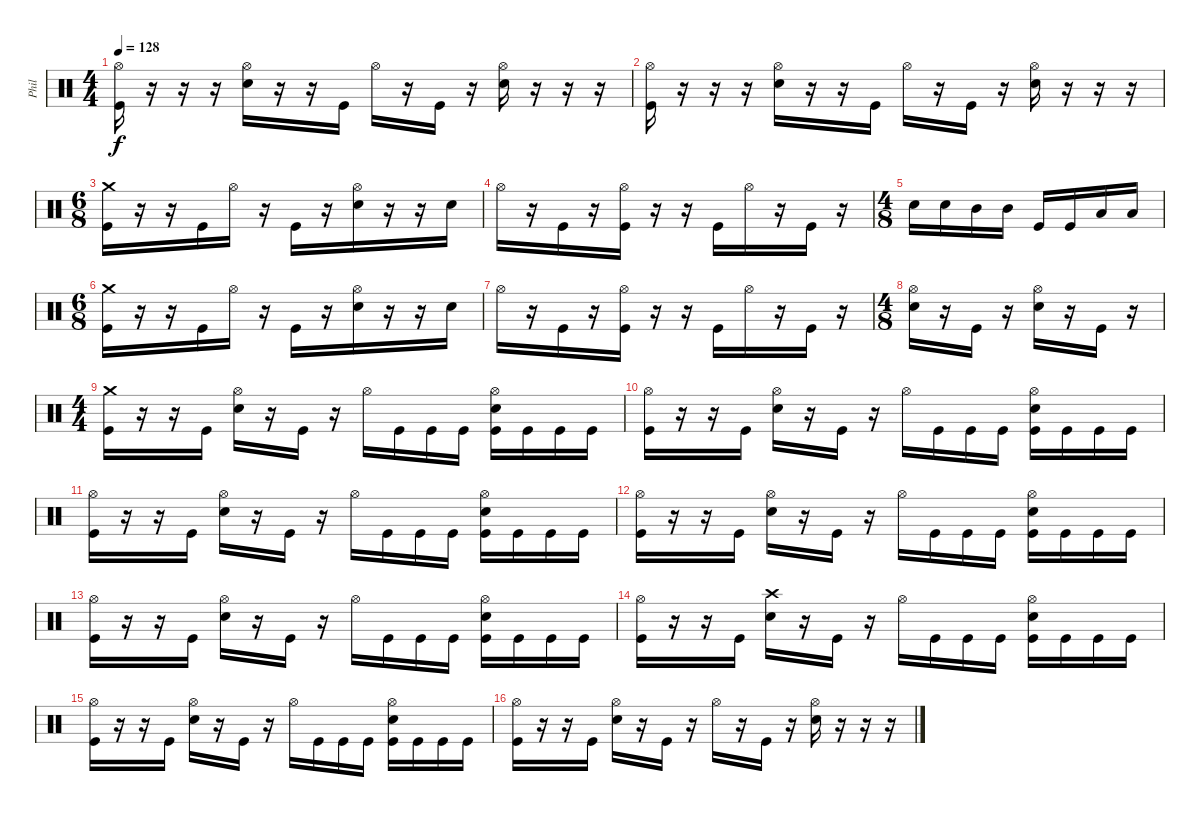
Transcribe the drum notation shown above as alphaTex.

\track ("Phil" "Phil") {instrument percussion}
\staff {score}
\articulation defaults
\ts (4 4)
\tempo 128
\clef neutral
\ks c
("Hi-Hat (open)" "Kick (hit)").16{dy f} r.16 r.16 r.16 ("Hi-Hat (open)" "Electric Snare (hit)").16 r.16 r.16 "Kick (hit)".16 "Hi-Hat (open)".16 r.16 "Kick (hit)".16 r.16 ("Hi-Hat (open)" "Electric Snare (hit)").16 r.16 r.16 r.16 |
("Hi-Hat (open)" "Kick (hit)").16 r.16 r.16 r.16 ("Hi-Hat (open)" "Electric Snare (hit)").16 r.16 r.16 "Kick (hit)".16 "Hi-Hat (open)".16 r.16 "Kick (hit)".16 r.16 ("Hi-Hat (open)" "Electric Snare (hit)").16 r.16 r.16 r.16 |
\ts (6 8)
("Crash medium (hit)" "Kick (hit)").16 r.16 r.16 "Kick (hit)".16 "Hi-Hat (open)".16 r.16 "Kick (hit)".16 r.16 ("Hi-Hat (open)" "Electric Snare (hit)").16 r.16 r.16 "Electric Snare (hit)".16 |
"Hi-Hat (open)".16 r.16 "Kick (hit)".16 r.16 ("Hi-Hat (open)" "Kick (hit)").16 r.16 r.16 "Kick (hit)".16 "Hi-Hat (open)".16 r.16 "Kick (hit)".16 r.16 |
\ts (4 8)
"Electric Snare (hit)".16 "Electric Snare (hit)".16 "Mid Tom (hit)".16 "Mid Tom (hit)".16 "Kick (hit)".16 "Kick (hit)".16 "Low Floor Tom (hit)".16 "Low Floor Tom (hit)".16 |
\ts (6 8)
("Crash medium (hit)" "Kick (hit)").16 r.16 r.16 "Kick (hit)".16 "Hi-Hat (open)".16 r.16 "Kick (hit)".16 r.16 ("Hi-Hat (open)" "Electric Snare (hit)").16 r.16 r.16 "Electric Snare (hit)".16 |
"Hi-Hat (open)".16 r.16 "Kick (hit)".16 r.16 ("Hi-Hat (open)" "Kick (hit)").16 r.16 r.16 "Kick (hit)".16 "Hi-Hat (open)".16 r.16 "Kick (hit)".16 r.16 |
\ts (4 8)
("Hi-Hat (open)" "Electric Snare (hit)").16 r.16 "Kick (hit)".16 r.16 ("Hi-Hat (open)" "Electric Snare (hit)").16 r.16 "Kick (hit)".16 r.16 |
\ts (4 4)
("Crash medium (hit)" "Kick (hit)").16 r.16 r.16 "Kick (hit)".16 ("Hi-Hat (open)" "Electric Snare (hit)").16 r.16 "Kick (hit)".16 r.16 "Hi-Hat (open)".16 "Kick (hit)".16 "Kick (hit)".16 "Kick (hit)".16 ("Hi-Hat (open)" "Electric Snare (hit)" "Kick (hit)").16 "Kick (hit)".16 "Kick (hit)".16 "Kick (hit)".16 |
("Hi-Hat (open)" "Kick (hit)").16 r.16 r.16 "Kick (hit)".16 ("Hi-Hat (open)" "Electric Snare (hit)").16 r.16 "Kick (hit)".16 r.16 "Hi-Hat (open)".16 "Kick (hit)".16 "Kick (hit)".16 "Kick (hit)".16 ("Hi-Hat (open)" "Electric Snare (hit)" "Kick (hit)").16 "Kick (hit)".16 "Kick (hit)".16 "Kick (hit)".16 |
("Hi-Hat (open)" "Kick (hit)").16 r.16 r.16 "Kick (hit)".16 ("Hi-Hat (open)" "Electric Snare (hit)").16 r.16 "Kick (hit)".16 r.16 "Hi-Hat (open)".16 "Kick (hit)".16 "Kick (hit)".16 "Kick (hit)".16 ("Hi-Hat (open)" "Electric Snare (hit)" "Kick (hit)").16 "Kick (hit)".16 "Kick (hit)".16 "Kick (hit)".16 |
("Hi-Hat (open)" "Kick (hit)").16 r.16 r.16 "Kick (hit)".16 ("Hi-Hat (open)" "Electric Snare (hit)").16 r.16 "Kick (hit)".16 r.16 "Hi-Hat (open)".16 "Kick (hit)".16 "Kick (hit)".16 "Kick (hit)".16 ("Hi-Hat (open)" "Electric Snare (hit)" "Kick (hit)").16 "Kick (hit)".16 "Kick (hit)".16 "Kick (hit)".16 |
("Hi-Hat (open)" "Kick (hit)").16 r.16 r.16 "Kick (hit)".16 ("Hi-Hat (open)" "Electric Snare (hit)").16 r.16 "Kick (hit)".16 r.16 "Hi-Hat (open)".16 "Kick (hit)".16 "Kick (hit)".16 "Kick (hit)".16 ("Hi-Hat (open)" "Electric Snare (hit)" "Kick (hit)").16 "Kick (hit)".16 "Kick (hit)".16 "Kick (hit)".16 |
("Hi-Hat (open)" "Kick (hit)").16 r.16 r.16 "Kick (hit)".16 ("Crash high (hit)" "Electric Snare (hit)").16 r.16 "Kick (hit)".16 r.16 "Hi-Hat (open)".16 "Kick (hit)".16 "Kick (hit)".16 "Kick (hit)".16 ("Hi-Hat (open)" "Electric Snare (hit)" "Kick (hit)").16 "Kick (hit)".16 "Kick (hit)".16 "Kick (hit)".16 |
("Hi-Hat (open)" "Kick (hit)").16 r.16 r.16 "Kick (hit)".16 ("Hi-Hat (open)" "Electric Snare (hit)").16 r.16 "Kick (hit)".16 r.16 "Hi-Hat (open)".16 "Kick (hit)".16 "Kick (hit)".16 "Kick (hit)".16 ("Hi-Hat (open)" "Electric Snare (hit)" "Kick (hit)").16 "Kick (hit)".16 "Kick (hit)".16 "Kick (hit)".16 |
("Hi-Hat (open)" "Kick (hit)").16 r.16 r.16 "Kick (hit)".16 ("Hi-Hat (open)" "Electric Snare (hit)").16 r.16 "Kick (hit)".16 r.16 "Hi-Hat (open)".16 r.16 "Kick (hit)".16 r.16 ("Hi-Hat (open)" "Electric Snare (hit)").16 r.16 r.16 r.16
